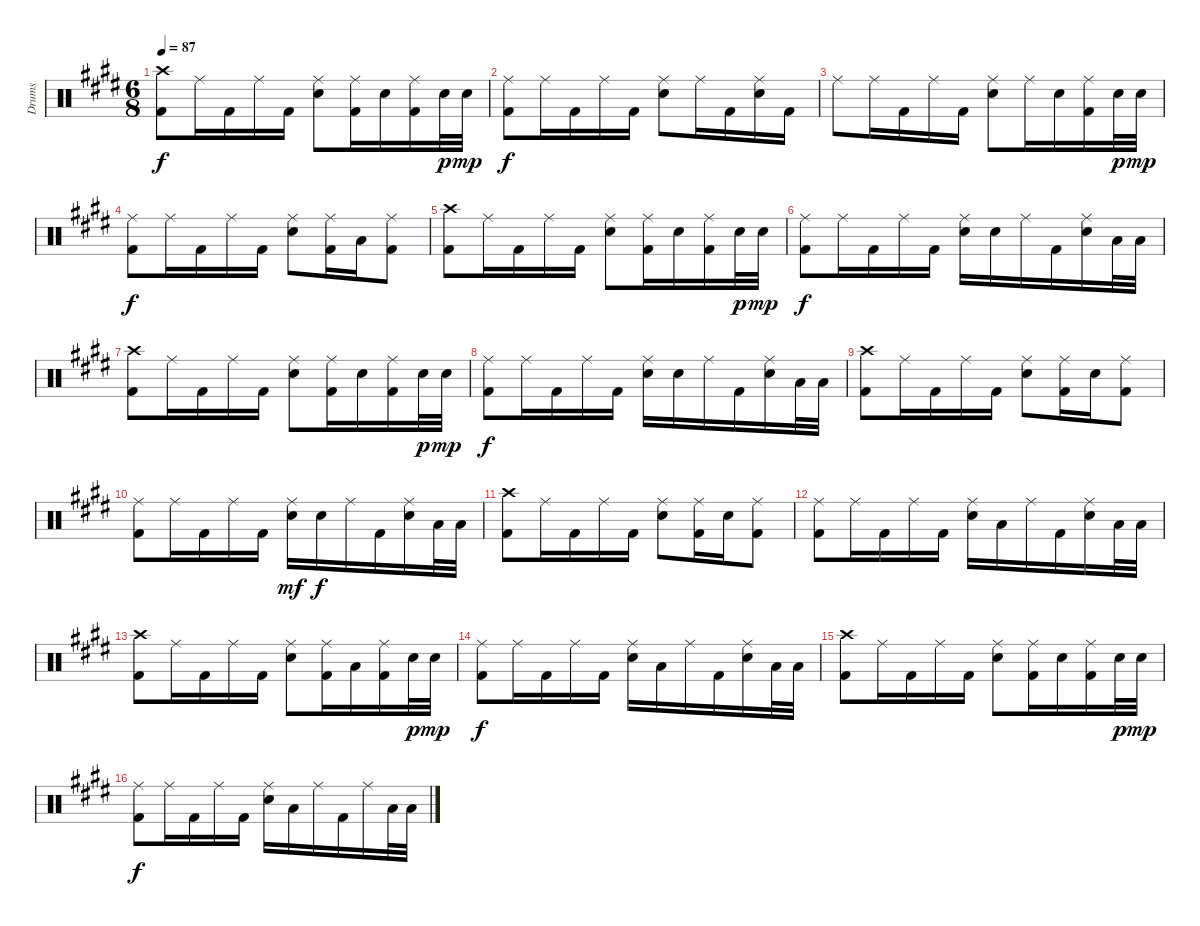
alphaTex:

\track ("Drums" "Drums") {instrument percussion}
\staff {score}
\articulation defaults
\ts (6 8)
\tempo 87
\clef neutral
\ks e
("Crash high (hit)" "Kick (hit) 2").8{dy f} "Ride (middle)".16 "Kick (hit) 2".16 "Ride (middle)".16 "Kick (hit) 2".16 ("Ride (middle)" "Electric Snare (hit)").8 ("Ride (middle)" "Kick (hit) 2").16 "Electric Snare (hit)".16 ("Ride (middle)" "Kick (hit) 2").16 "Electric Snare (hit)".32{dy p} "Electric Snare (hit)".32{dy mp} |
\ks c#minor
("Ride (middle)" "Kick (hit) 2").8{dy f} "Ride (middle)".16 "Kick (hit) 2".16 "Ride (middle)".16 "Kick (hit) 2".16 ("Ride (middle)" "Electric Snare (hit)").8 "Ride (middle)".16 "Kick (hit) 2".16 ("Ride (middle)" "Electric Snare (hit)").16 "Kick (hit) 2".16 |
\ks e "Ride (middle)".8 "Ride (middle)".16 "Kick (hit) 2".16 "Ride (middle)".16 "Kick (hit) 2".16
("Ride (middle)" "Electric Snare (hit)").8 "Ride (middle)".16 "Electric Snare (hit)".16 ("Ride (middle)" "Kick (hit) 2").16 "Electric Snare (hit)".32{dy p} "Electric Snare (hit)".32{dy mp} |
\ks c#minor
("Ride (middle)" "Kick (hit) 2").8{dy f} "Ride (middle)".16 "Kick (hit) 2".16 "Ride (middle)".16 "Kick (hit) 2".16 ("Ride (middle)" "Electric Snare (hit)").8 ("Ride (middle)" "Kick (hit) 2").16 "Low Tom (hit)".16 ("Ride (middle)" "Kick (hit) 2").8 |
\ks e
("Crash high (hit)" "Kick (hit) 2").8 "Ride (middle)".16 "Kick (hit) 2".16 "Ride (middle)".16 "Kick (hit) 2".16 ("Ride (middle)" "Electric Snare (hit)").8 ("Ride (middle)" "Kick (hit) 2").16 "Electric Snare (hit)".16 ("Ride (middle)" "Kick (hit) 2").16 "Electric Snare (hit)".32{dy p} "Electric Snare (hit)".32{dy mp} |
\ks c#minor
("Ride (middle)" "Kick (hit) 2").8{dy f} "Ride (middle)".16 "Kick (hit) 2".16 "Ride (middle)".16 "Kick (hit) 2".16 ("Ride (middle)" "Electric Snare (hit)").16 "Electric Snare (hit)".16 "Ride (middle)".16 "Kick (hit) 2".16 ("Ride (middle)" "Electric Snare (hit)").16 "Low Tom (hit)".32 "Low Tom (hit)".32 |
\ks e
("Crash high (hit)" "Kick (hit) 2").8 "Ride (middle)".16 "Kick (hit) 2".16 "Ride (middle)".16 "Kick (hit) 2".16 ("Ride (middle)" "Electric Snare (hit)").8 ("Ride (middle)" "Kick (hit) 2").16 "Electric Snare (hit)".16 ("Ride (middle)" "Kick (hit) 2").16 "Electric Snare (hit)".32{dy p} "Electric Snare (hit)".32{dy mp} |
\ks c#minor
("Ride (middle)" "Kick (hit) 2").8{dy f} "Ride (middle)".16 "Kick (hit) 2".16 "Ride (middle)".16 "Kick (hit) 2".16 ("Ride (middle)" "Electric Snare (hit)").16 "Electric Snare (hit)".16 "Ride (middle)".16 "Kick (hit) 2".16 ("Ride (middle)" "Electric Snare (hit)").16 "Low Tom (hit)".32 "Low Tom (hit)".32 |
\ks e
("Crash high (hit)" "Kick (hit) 2").8 "Ride (middle)".16 "Kick (hit) 2".16 "Ride (middle)".16 "Kick (hit) 2".16 ("Ride (middle)" "Electric Snare (hit)").8 ("Ride (middle)" "Kick (hit) 2").16 "Electric Snare (hit)".16 ("Ride (middle)" "Kick (hit) 2").8 |
\ks c#minor
("Ride (middle)" "Kick (hit) 2").8 "Ride (middle)".16 "Kick (hit) 2".16 "Ride (middle)".16 "Kick (hit) 2".16 ("Ride (middle)" "Electric Snare (hit)").16{dy mf} "Electric Snare (hit)".16{dy f} "Ride (middle)".16 "Kick (hit) 2".16 ("Ride (middle)" "Electric Snare (hit)").16 "Low Tom (hit)".32 "Low Tom (hit)".32 |
\ks e
("Crash high (hit)" "Kick (hit) 2").8 "Ride (middle)".16 "Kick (hit) 2".16 "Ride (middle)".16 "Kick (hit) 2".16 ("Ride (middle)" "Electric Snare (hit)").8 ("Ride (middle)" "Kick (hit) 2").16 "Electric Snare (hit)".16 ("Ride (middle)" "Kick (hit) 2").8 |
\ks c#minor
("Ride (middle)" "Kick (hit) 2").8 "Ride (middle)".16 "Kick (hit) 2".16 "Ride (middle)".16 "Kick (hit) 2".16 ("Ride (middle)" "Electric Snare (hit)").16 "Low Tom (hit)".16 "Ride (middle)".16 "Kick (hit) 2".16 ("Ride (middle)" "Electric Snare (hit)").16 "Low Tom (hit)".32 "Low Tom (hit)".32 |
\ks e
("Crash high (hit)" "Kick (hit) 2").8 "Ride (middle)".16 "Kick (hit) 2".16 "Ride (middle)".16 "Kick (hit) 2".16 ("Ride (middle)" "Electric Snare (hit)").8 ("Ride (middle)" "Kick (hit) 2").16 "Low Tom (hit)".16 ("Ride (middle)" "Kick (hit) 2").16 "Electric Snare (hit)".32{dy p} "Electric Snare (hit)".32{dy mp} |
\ks c#minor
("Ride (middle)" "Kick (hit) 2").8{dy f} "Ride (middle)".16 "Kick (hit) 2".16 "Ride (middle)".16 "Kick (hit) 2".16 ("Ride (middle)" "Electric Snare (hit)").16 "Low Tom (hit)".16 "Ride (middle)".16 "Kick (hit) 2".16 ("Ride (middle)" "Electric Snare (hit)").16 "Low Tom (hit)".32 "Low Tom (hit)".32 |
\ks e
("Crash high (hit)" "Kick (hit) 2").8 "Ride (middle)".16 "Kick (hit) 2".16 "Ride (middle)".16 "Kick (hit) 2".16 ("Ride (middle)" "Electric Snare (hit)").8 ("Ride (middle)" "Kick (hit) 2").16 "Electric Snare (hit)".16 ("Ride (middle)" "Kick (hit) 2").16 "Electric Snare (hit)".32{dy p} "Electric Snare (hit)".32{dy mp} |
\ks c#minor
("Ride (middle)" "Kick (hit) 2").8{dy f} "Ride (middle)".16 "Kick (hit) 2".16 "Ride (middle)".16 "Kick (hit) 2".16 ("Ride (middle)" "Electric Snare (hit)").16 "Low Tom (hit)".16 "Ride (middle)".16 "Kick (hit) 2".16 "Ride (middle)".16 "Low Tom (hit)".32 "Low Tom (hit)".32
